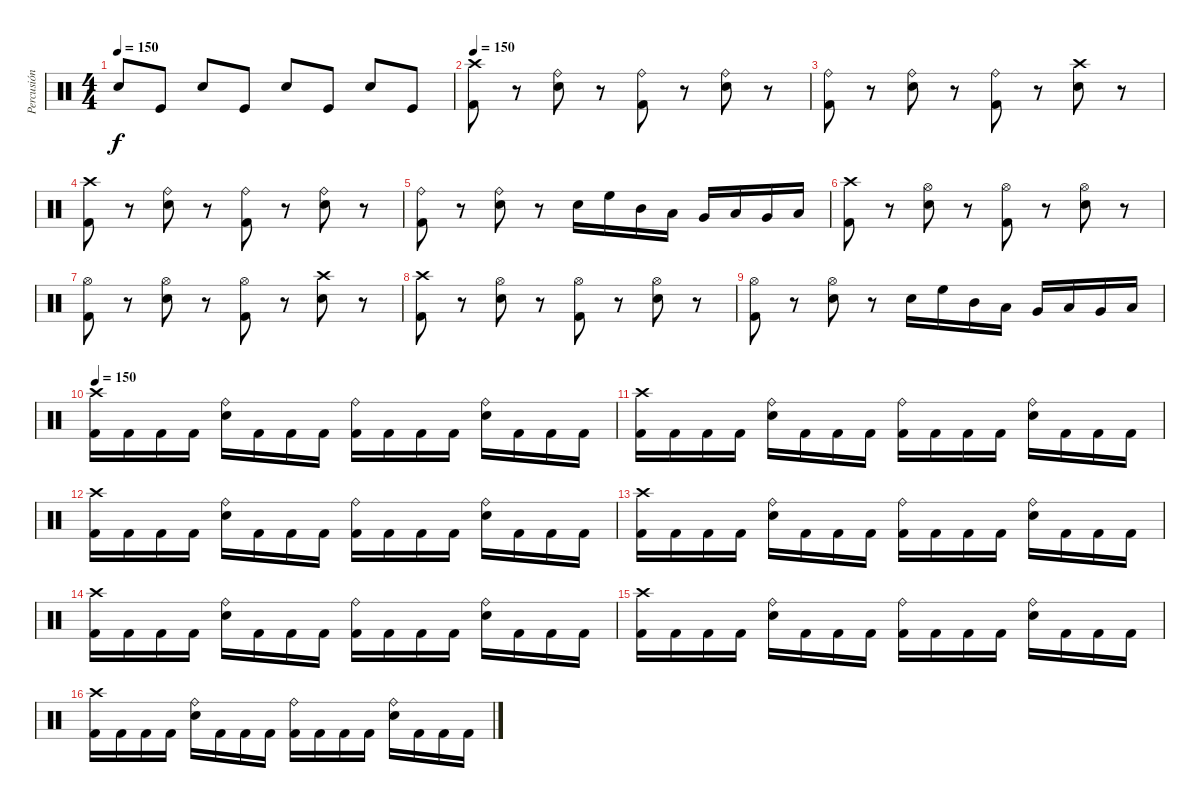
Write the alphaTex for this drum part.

\track ("Percusión" "Percusión") {instrument percussion}
\staff {score}
\articulation defaults
\ts (4 4)
\tempo 150
\clef neutral
\ks c "Electric Snare (hit)".8{dy f} "Kick (hit)".8 "Electric Snare (hit)".8 "Kick (hit)".8 "Electric Snare (hit)".8 "Kick (hit)".8 "Electric Snare (hit)".8 "Kick (hit)".8
|
\tempo 150
("Crash high (hit)" "Kick (hit) 2").8 r.8 ("Ride (bell)" "Electric Snare (hit)").8 r.8 ("Ride (bell)" "Kick (hit) 2").8 r.8 ("Ride (bell)" "Electric Snare (hit)").8 r.8 |
("Ride (bell)" "Kick (hit) 2").8 r.8 ("Ride (bell)" "Electric Snare (hit)").8 r.8 ("Ride (bell)" "Kick (hit) 2").8 r.8 ("Crash high (hit)" "Electric Snare (hit)").8 r.8 |
("Crash high (hit)" "Kick (hit) 2").8 r.8 ("Ride (bell)" "Electric Snare (hit)").8 r.8 ("Ride (bell)" "Kick (hit) 2").8 r.8 ("Ride (bell)" "Electric Snare (hit)").8 r.8 |
("Ride (bell)" "Kick (hit) 2").8 r.8 ("Ride (bell)" "Electric Snare (hit)").8 r.8 "Electric Snare (hit)".16 "High Floor Tom (hit)".16 "Mid Tom (hit)".16 "Low Tom (hit)".16 "Very Low Tom (hit)".16 "Low Tom (hit)".16 "Very Low Tom (hit)".16 "Low Floor Tom (hit)".16 |
("Crash high (hit)" "Kick (hit) 2").8 r.8 ("Hi-Hat (open)" "Electric Snare (hit)").8 r.8 ("Hi-Hat (open)" "Kick (hit) 2").8 r.8 ("Hi-Hat (open)" "Electric Snare (hit)").8 r.8 |
("Hi-Hat (open)" "Kick (hit) 2").8 r.8 ("Hi-Hat (open)" "Electric Snare (hit)").8 r.8 ("Hi-Hat (open)" "Kick (hit) 2").8 r.8 ("Crash high (hit)" "Electric Snare (hit)").8 r.8 |
("Crash high (hit)" "Kick (hit) 2").8 r.8 ("Hi-Hat (open)" "Electric Snare (hit)").8 r.8 ("Hi-Hat (open)" "Kick (hit) 2").8 r.8 ("Hi-Hat (open)" "Electric Snare (hit)").8 r.8 |
("Hi-Hat (open)" "Kick (hit) 2").8 r.8 ("Hi-Hat (open)" "Electric Snare (hit)").8 r.8 "Electric Snare (hit)".16 "High Floor Tom (hit)".16 "Mid Tom (hit)".16 "Low Tom (hit)".16 "Very Low Tom (hit)".16 "Low Tom (hit)".16 "Very Low Tom (hit)".16 "Low Floor Tom (hit)".16 |
\tempo 150
("Crash high (hit)" "Kick (hit) 2").16 "Kick (hit) 2".16 "Kick (hit) 2".16 "Kick (hit) 2".16 ("Ride (bell)" "Electric Snare (hit)").16 "Kick (hit) 2".16 "Kick (hit) 2".16 "Kick (hit) 2".16 ("Ride (bell)" "Kick (hit) 2").16 "Kick (hit) 2".16 "Kick (hit) 2".16 "Kick (hit) 2".16 ("Ride (bell)" "Electric Snare (hit)").16 "Kick (hit) 2".16 "Kick (hit) 2".16 "Kick (hit) 2".16 |
("Crash high (hit)" "Kick (hit) 2").16 "Kick (hit) 2".16 "Kick (hit) 2".16 "Kick (hit) 2".16 ("Ride (bell)" "Electric Snare (hit)").16 "Kick (hit) 2".16 "Kick (hit) 2".16 "Kick (hit) 2".16 ("Ride (bell)" "Kick (hit) 2").16 "Kick (hit) 2".16 "Kick (hit) 2".16 "Kick (hit) 2".16 ("Ride (bell)" "Electric Snare (hit)").16 "Kick (hit) 2".16 "Kick (hit) 2".16 "Kick (hit) 2".16 |
("Crash high (hit)" "Kick (hit) 2").16 "Kick (hit) 2".16 "Kick (hit) 2".16 "Kick (hit) 2".16 ("Ride (bell)" "Electric Snare (hit)").16 "Kick (hit) 2".16 "Kick (hit) 2".16 "Kick (hit) 2".16 ("Ride (bell)" "Kick (hit) 2").16 "Kick (hit) 2".16 "Kick (hit) 2".16 "Kick (hit) 2".16 ("Ride (bell)" "Electric Snare (hit)").16 "Kick (hit) 2".16 "Kick (hit) 2".16 "Kick (hit) 2".16 |
("Crash high (hit)" "Kick (hit) 2").16 "Kick (hit) 2".16 "Kick (hit) 2".16 "Kick (hit) 2".16 ("Ride (bell)" "Electric Snare (hit)").16 "Kick (hit) 2".16 "Kick (hit) 2".16 "Kick (hit) 2".16 ("Ride (bell)" "Kick (hit) 2").16 "Kick (hit) 2".16 "Kick (hit) 2".16 "Kick (hit) 2".16 ("Ride (bell)" "Electric Snare (hit)").16 "Kick (hit) 2".16 "Kick (hit) 2".16 "Kick (hit) 2".16 |
("Crash high (hit)" "Kick (hit) 2").16 "Kick (hit) 2".16 "Kick (hit) 2".16 "Kick (hit) 2".16 ("Ride (bell)" "Electric Snare (hit)").16 "Kick (hit) 2".16 "Kick (hit) 2".16 "Kick (hit) 2".16 ("Ride (bell)" "Kick (hit) 2").16 "Kick (hit) 2".16 "Kick (hit) 2".16 "Kick (hit) 2".16 ("Ride (bell)" "Electric Snare (hit)").16 "Kick (hit) 2".16 "Kick (hit) 2".16 "Kick (hit) 2".16 |
("Crash high (hit)" "Kick (hit) 2").16 "Kick (hit) 2".16 "Kick (hit) 2".16 "Kick (hit) 2".16 ("Ride (bell)" "Electric Snare (hit)").16 "Kick (hit) 2".16 "Kick (hit) 2".16 "Kick (hit) 2".16 ("Ride (bell)" "Kick (hit) 2").16 "Kick (hit) 2".16 "Kick (hit) 2".16 "Kick (hit) 2".16 ("Ride (bell)" "Electric Snare (hit)").16 "Kick (hit) 2".16 "Kick (hit) 2".16 "Kick (hit) 2".16 |
("Crash high (hit)" "Kick (hit) 2").16 "Kick (hit) 2".16 "Kick (hit) 2".16 "Kick (hit) 2".16 ("Ride (bell)" "Electric Snare (hit)").16 "Kick (hit) 2".16 "Kick (hit) 2".16 "Kick (hit) 2".16 ("Ride (bell)" "Kick (hit) 2").16 "Kick (hit) 2".16 "Kick (hit) 2".16 "Kick (hit) 2".16 ("Ride (bell)" "Electric Snare (hit)").16 "Kick (hit) 2".16 "Kick (hit) 2".16 "Kick (hit) 2".16
